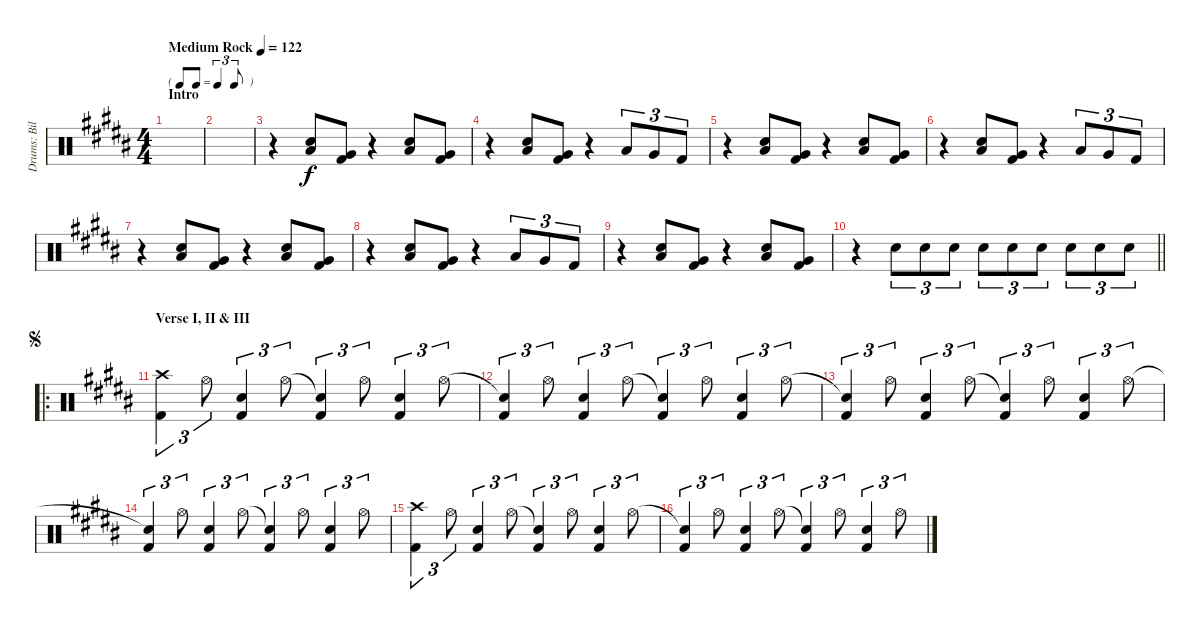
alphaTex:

\track ("Drums: Bill" "Drums: Bil") {instrument percussion}
\staff {score}
\articulation defaults
\ts (4 4)
\tf triplet8th
\section ("" "Intro")
\tempo (122 "Medium Rock")
\clef neutral
\ks b
|
|
r.4 ("Electric Snare (hit)" "Low Tom (hit)").8 ("Very Low Tom (hit)" "Kick (hit) 2").8 r.4 ("Electric Snare (hit)" "Low Tom (hit)").8 ("Very Low Tom (hit)" "Kick (hit) 2").8 |
r.4 ("Electric Snare (hit)" "Low Tom (hit)").8 ("Very Low Tom (hit)" "Kick (hit) 2").8 r.4 "Low Tom (hit)".8{tu (3 2)} "Very Low Tom (hit)".8{tu (3 2)} "Kick (hit) 2".8{tu (3 2)} |
r.4 ("Electric Snare (hit)" "Low Tom (hit)").8 ("Very Low Tom (hit)" "Kick (hit) 2").8 r.4 ("Electric Snare (hit)" "Low Tom (hit)").8 ("Very Low Tom (hit)" "Kick (hit) 2").8 |
r.4 ("Electric Snare (hit)" "Low Tom (hit)").8 ("Very Low Tom (hit)" "Kick (hit) 2").8 r.4 "Low Tom (hit)".8{tu (3 2)} "Very Low Tom (hit)".8{tu (3 2)} "Kick (hit) 2".8{tu (3 2)} |
r.4 ("Electric Snare (hit)" "Low Tom (hit)").8 ("Very Low Tom (hit)" "Kick (hit) 2").8 r.4 ("Electric Snare (hit)" "Low Tom (hit)").8 ("Very Low Tom (hit)" "Kick (hit) 2").8 |
r.4 ("Electric Snare (hit)" "Low Tom (hit)").8 ("Very Low Tom (hit)" "Kick (hit) 2").8 r.4 "Low Tom (hit)".8{tu (3 2)} "Very Low Tom (hit)".8{tu (3 2)} "Kick (hit) 2".8{tu (3 2)} |
r.4 ("Electric Snare (hit)" "Low Tom (hit)").8 ("Very Low Tom (hit)" "Kick (hit) 2").8 r.4 ("Electric Snare (hit)" "Low Tom (hit)").8 ("Very Low Tom (hit)" "Kick (hit) 2").8 |
\barLineRight lightlight
r.4 "Electric Snare (hit)".8{tu (3 2)} "Electric Snare (hit)".8{tu (3 2)} "Electric Snare (hit)".8{tu (3 2)} "Electric Snare (hit)".8{tu (3 2)} "Electric Snare (hit)".8{tu (3 2)} "Electric Snare (hit)".8{tu (3 2)} "Electric Snare (hit)".8{tu (3 2)} "Electric Snare (hit)".8{tu (3 2)} "Electric Snare (hit)".8{tu (3 2)} |
\ro
\section ("" "Verse I, II & III")
\jump segno
("Crash high (hit)" "Kick (hit) 2").4{tu (3 2)} "Hi-Hat (open)".8{tu (3 2)} ("Electric Snare (hit)" "Kick (hit) 2").4{tu (3 2)} "Hi-Hat (open)".8{tu (3 2)} ("Snare (hit)"{t} "Kick (hit) 2").4{tu (3 2)} "Hi-Hat (open)".8{tu (3 2)} ("Electric Snare (hit)" "Kick (hit) 2").4{tu (3 2)} "Hi-Hat (open)".8{tu (3 2)} |
("Snare (hit)"{t} "Kick (hit) 2").4{tu (3 2)} "Hi-Hat (open)".8{tu (3 2)} ("Electric Snare (hit)" "Kick (hit) 2").4{tu (3 2)} "Hi-Hat (open)".8{tu (3 2)} ("Snare (hit)"{t} "Kick (hit) 2").4{tu (3 2)} "Hi-Hat (open)".8{tu (3 2)} ("Electric Snare (hit)" "Kick (hit) 2").4{tu (3 2)} "Hi-Hat (open)".8{tu (3 2)} |
("Snare (hit)"{t} "Kick (hit) 2").4{tu (3 2)} "Hi-Hat (open)".8{tu (3 2)} ("Electric Snare (hit)" "Kick (hit) 2").4{tu (3 2)} "Hi-Hat (open)".8{tu (3 2)} ("Snare (hit)"{t} "Kick (hit) 2").4{tu (3 2)} "Hi-Hat (open)".8{tu (3 2)} ("Electric Snare (hit)" "Kick (hit) 2").4{tu (3 2)} "Hi-Hat (open)".8{tu (3 2)} |
("Snare (hit)"{t} "Kick (hit) 2").4{tu (3 2)} "Hi-Hat (open)".8{tu (3 2)} ("Electric Snare (hit)" "Kick (hit) 2").4{tu (3 2)} "Hi-Hat (open)".8{tu (3 2)} ("Snare (hit)"{t} "Kick (hit) 2").4{tu (3 2)} "Hi-Hat (open)".8{tu (3 2)} ("Electric Snare (hit)" "Kick (hit) 2").4{tu (3 2)} "Hi-Hat (open)".8{tu (3 2)} |
("Crash high (hit)" "Kick (hit) 2").4{tu (3 2)} "Hi-Hat (open)".8{tu (3 2)} ("Electric Snare (hit)" "Kick (hit) 2").4{tu (3 2)} "Hi-Hat (open)".8{tu (3 2)} ("Snare (hit)"{t} "Kick (hit) 2").4{tu (3 2)} "Hi-Hat (open)".8{tu (3 2)} ("Electric Snare (hit)" "Kick (hit) 2").4{tu (3 2)} "Hi-Hat (open)".8{tu (3 2)} |
("Snare (hit)"{t} "Kick (hit) 2").4{tu (3 2)} "Hi-Hat (open)".8{tu (3 2)} ("Electric Snare (hit)" "Kick (hit) 2").4{tu (3 2)} "Hi-Hat (open)".8{tu (3 2)} ("Snare (hit)"{t} "Kick (hit) 2").4{tu (3 2)} "Hi-Hat (open)".8{tu (3 2)} ("Electric Snare (hit)" "Kick (hit) 2").4{tu (3 2)} "Hi-Hat (open)".8{tu (3 2)}
